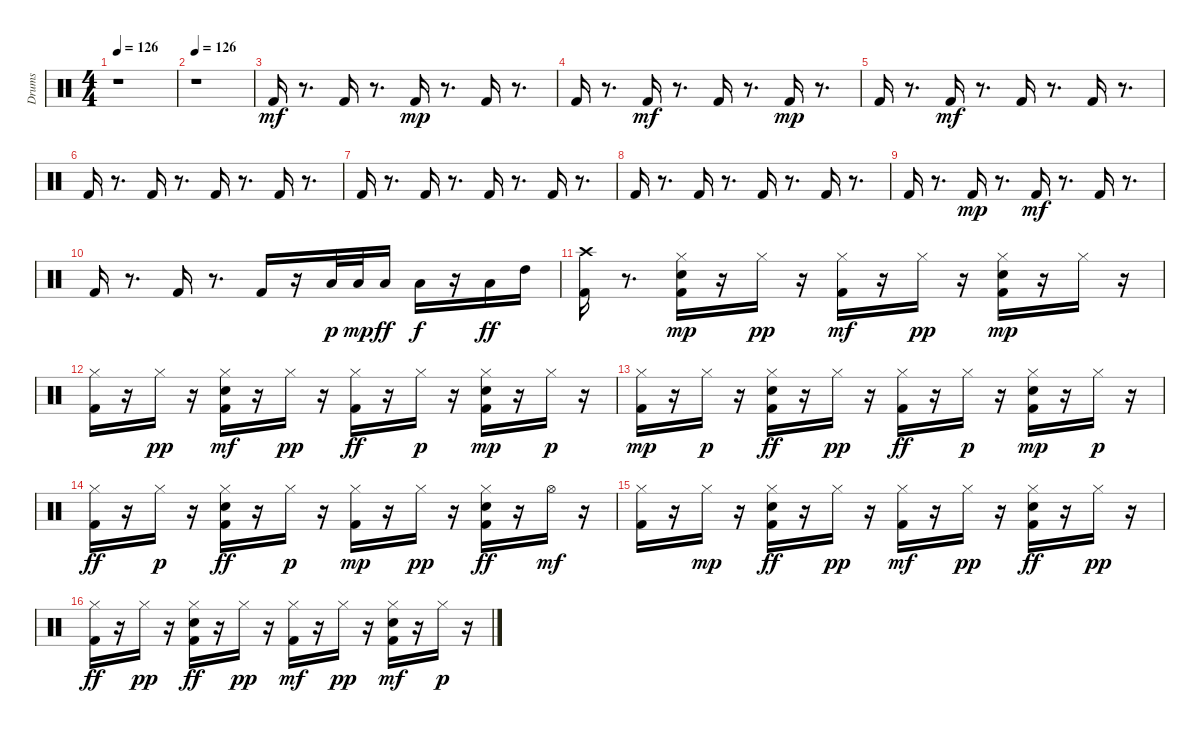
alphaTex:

\track ("Drums" "Drums") {instrument percussion}
\staff {score}
\articulation defaults
\ts (4 4)
\tempo 126
\clef neutral
\ks c
r.1{dy mf} |
\tempo 126
r.1 |
"Kick (hit) 2".16 r.8{d} "Kick (hit) 2".16 r.8{d} "Kick (hit) 2".16{dy mp} r.8{d} "Kick (hit) 2".16 r.8{d} |
"Kick (hit) 2".16 r.8{d} "Kick (hit) 2".16{dy mf} r.8{d} "Kick (hit) 2".16 r.8{d} "Kick (hit) 2".16{dy mp} r.8{d} |
"Kick (hit) 2".16 r.8{d} "Kick (hit) 2".16{dy mf} r.8{d} "Kick (hit) 2".16 r.8{d} "Kick (hit) 2".16 r.8{d} |
"Kick (hit) 2".16 r.8{d} "Kick (hit) 2".16 r.8{d} "Kick (hit) 2".16 r.8{d} "Kick (hit) 2".16 r.8{d} |
"Kick (hit) 2".16 r.8{d} "Kick (hit) 2".16 r.8{d} "Kick (hit) 2".16 r.8{d} "Kick (hit) 2".16 r.8{d} |
"Kick (hit) 2".16 r.8{d} "Kick (hit) 2".16 r.8{d} "Kick (hit) 2".16 r.8{d} "Kick (hit) 2".16 r.8{d} |
"Kick (hit) 2".16 r.8{d} "Kick (hit) 2".16{dy mp} r.8{d} "Kick (hit) 2".16{dy mf} r.8{d} "Kick (hit) 2".16 r.8{d} |
"Kick (hit) 2".16 r.8{d} "Kick (hit) 2".16 r.8{d} "Kick (hit) 2".16 r.16 "Low Tom (hit)".32{dy p} "Low Tom (hit)".32{dy mp} "Low Tom (hit)".16{dy ff} "Low Tom (hit)".16{dy f} r.16 "Low Tom (hit)".16{dy ff} "High Tom (hit)".16 |
("Kick (hit) 2" "Crash high (hit)").16 r.8{d} ("Kick (hit) 2" "Snare (hit) 2" "Hi-Hat (closed)").16{dy mp} r.16 "Hi-Hat (closed)".16{dy pp} r.16 ("Kick (hit) 2" "Hi-Hat (closed)").16{dy mf} r.16 "Hi-Hat (closed)".16{dy pp} r.16 ("Snare (hit) 2" "Hi-Hat (closed)" "Kick (hit) 2").16{dy mp} r.16 "Hi-Hat (closed)".16 r.16 |
("Kick (hit) 2" "Hi-Hat (closed)").16 r.16 "Hi-Hat (closed)".16{dy pp} r.16 ("Kick (hit) 2" "Snare (hit) 2" "Hi-Hat (closed)").16{dy mf} r.16 "Hi-Hat (closed)".16{dy pp} r.16 ("Kick (hit) 2" "Hi-Hat (closed)").16{dy ff} r.16 "Hi-Hat (closed)".16{dy p} r.16 ("Kick (hit) 2" "Snare (hit) 2" "Hi-Hat (closed)").16{dy mp} r.16 "Hi-Hat (closed)".16{dy p} r.16 |
("Kick (hit) 2" "Hi-Hat (closed)").16{dy mp} r.16 "Hi-Hat (closed)".16{dy p} r.16 ("Kick (hit) 2" "Hi-Hat (closed)" "Snare (hit) 2").16{dy ff} r.16 "Hi-Hat (closed)".16{dy pp} r.16 ("Kick (hit) 2" "Hi-Hat (closed)").16{dy ff} r.16 "Hi-Hat (closed)".16{dy p} r.16 ("Kick (hit) 2" "Snare (hit) 2" "Hi-Hat (closed)").16{dy mp} r.16 "Hi-Hat (closed)".16{dy p} r.16 |
("Kick (hit) 2" "Hi-Hat (closed)").16{dy ff} r.16 "Hi-Hat (closed)".16{dy p} r.16 ("Kick (hit) 2" "Snare (hit) 2" "Hi-Hat (closed)").16{dy ff} r.16 "Hi-Hat (closed)".16{dy p} r.16 ("Kick (hit) 2" "Hi-Hat (closed)").16{dy mp} r.16 "Hi-Hat (closed)".16{dy pp} r.16 ("Kick (hit) 2" "Hi-Hat (closed)" "Snare (hit) 2").16{dy ff} r.16 "Hi-Hat (open)".16{dy mf} r.16 |
("Kick (hit) 2" "Hi-Hat (closed)").16 r.16 "Hi-Hat (closed)".16{dy mp} r.16 ("Kick (hit) 2" "Snare (hit) 2" "Hi-Hat (closed)").16{dy ff} r.16 "Hi-Hat (closed)".16{dy pp} r.16 ("Hi-Hat (closed)" "Kick (hit) 2").16{dy mf} r.16 "Hi-Hat (closed)".16{dy pp} r.16 ("Kick (hit) 2" "Snare (hit) 2" "Hi-Hat (closed)").16{dy ff} r.16 "Hi-Hat (closed)".16{dy pp} r.16 |
("Kick (hit) 2" "Hi-Hat (closed)").16{dy ff} r.16 "Hi-Hat (closed)".16{dy pp} r.16 ("Kick (hit) 2" "Snare (hit) 2" "Hi-Hat (closed)").16{dy ff} r.16 "Hi-Hat (closed)".16{dy pp} r.16 ("Kick (hit) 2" "Hi-Hat (closed)").16{dy mf} r.16 "Hi-Hat (closed)".16{dy pp} r.16 ("Snare (hit) 2" "Hi-Hat (closed)" "Kick (hit) 2").16{dy mf} r.16 "Hi-Hat (closed)".16{dy p} r.16
